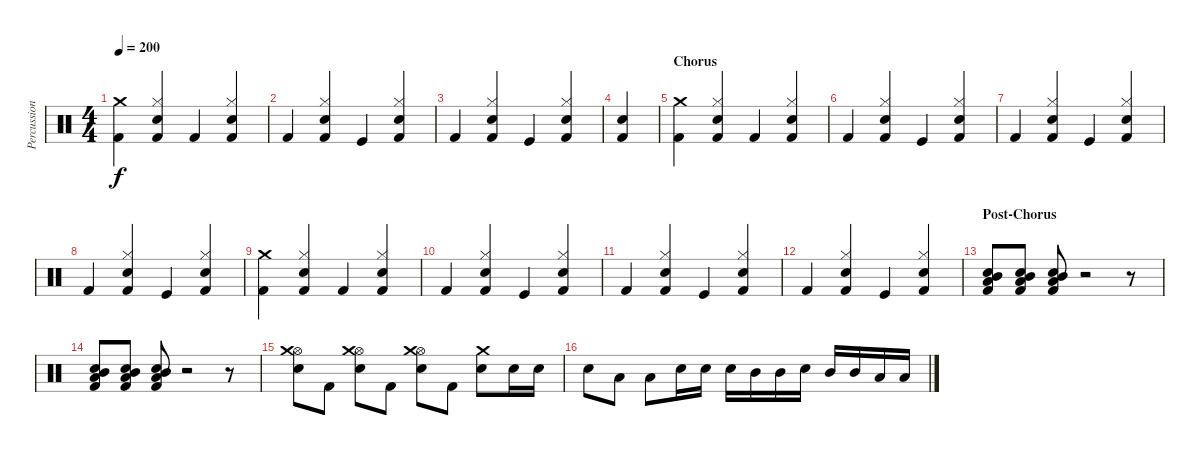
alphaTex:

\track ("Percussion" "Percussion") {instrument percussion}
\staff {score}
\articulation defaults
\ts (4 4)
\tempo 200
\clef neutral
\ks c
("Crash medium (hit)" "Kick (hit) 2").4{dy f} ("Hi-Hat (closed)" "Snare (hit) 2" "Kick (hit) 2").4 "Kick (hit) 2".4 ("Hi-Hat (closed)" "Snare (hit) 2" "Kick (hit) 2").4 |
"Kick (hit) 2".4 ("Hi-Hat (closed)" "Snare (hit) 2" "Kick (hit) 2").4 "Kick (hit)".4 ("Hi-Hat (closed)" "Snare (hit) 2" "Kick (hit) 2").4 |
"Kick (hit) 2".4 ("Hi-Hat (closed)" "Snare (hit) 2" "Kick (hit) 2").4 "Kick (hit)".4 ("Hi-Hat (closed)" "Snare (hit) 2" "Kick (hit) 2").4 |
("Kick (hit) 2" "Snare (hit) 2").4 |
\section ("" "Chorus")
("Crash medium (hit)" "Kick (hit) 2").4 ("Hi-Hat (closed)" "Snare (hit) 2" "Kick (hit) 2").4 "Kick (hit) 2".4 ("Hi-Hat (closed)" "Snare (hit) 2" "Kick (hit) 2").4 |
"Kick (hit) 2".4 ("Hi-Hat (closed)" "Snare (hit) 2" "Kick (hit) 2").4 "Kick (hit)".4 ("Hi-Hat (closed)" "Snare (hit) 2" "Kick (hit) 2").4 |
"Kick (hit) 2".4 ("Hi-Hat (closed)" "Snare (hit) 2" "Kick (hit) 2").4 "Kick (hit)".4 ("Hi-Hat (closed)" "Snare (hit) 2" "Kick (hit) 2").4 |
"Kick (hit) 2".4 ("Hi-Hat (closed)" "Snare (hit) 2" "Kick (hit) 2").4 "Kick (hit)".4 ("Hi-Hat (closed)" "Snare (hit) 2" "Kick (hit) 2").4 |
("Crash medium (hit)" "Kick (hit) 2").4 ("Hi-Hat (closed)" "Snare (hit) 2" "Kick (hit) 2").4 "Kick (hit) 2".4 ("Hi-Hat (closed)" "Snare (hit) 2" "Kick (hit) 2").4 |
"Kick (hit) 2".4 ("Hi-Hat (closed)" "Snare (hit) 2" "Kick (hit) 2").4 "Kick (hit)".4 ("Hi-Hat (closed)" "Snare (hit) 2" "Kick (hit) 2").4 |
"Kick (hit) 2".4 ("Hi-Hat (closed)" "Snare (hit) 2" "Kick (hit) 2").4 "Kick (hit)".4 ("Hi-Hat (closed)" "Snare (hit) 2" "Kick (hit) 2").4 |
"Kick (hit) 2".4 ("Hi-Hat (closed)" "Snare (hit) 2" "Kick (hit) 2").4 "Kick (hit)".4 ("Hi-Hat (closed)" "Snare (hit) 2" "Kick (hit) 2").4 |
\section ("" "Post-Chorus")
("Low Floor Tom (hit)" "Mid Tom (hit)" "Snare (hit) 2" "Kick (hit) 2").8 ("Low Floor Tom (hit)" "Mid Tom (hit)" "Snare (hit) 2" "Kick (hit) 2").8 ("Low Floor Tom (hit)" "Mid Tom (hit)" "Snare (hit) 2" "Kick (hit) 2").8 r.2 r.8 |
("Low Floor Tom (hit)" "Mid Tom (hit)" "Snare (hit) 2" "Kick (hit) 2").8 ("Low Floor Tom (hit)" "Mid Tom (hit)" "Snare (hit) 2" "Kick (hit) 2").8 ("Low Floor Tom (hit)" "Mid Tom (hit)" "Snare (hit) 2" "Kick (hit) 2").8 r.2 r.8 |
("Hi-Hat (open)" "Electric Snare (hit)" "Crash medium (hit)").8 "Kick (hit) 2".8 ("Hi-Hat (open)" "Electric Snare (hit)" "Crash medium (hit)").8 "Kick (hit) 2".8 ("Hi-Hat (open)" "Electric Snare (hit)" "Crash medium (hit)").8 "Kick (hit) 2".8 ("Electric Snare (hit)" "Crash medium (hit)").8 "Electric Snare (hit)".16 "Electric Snare (hit)".16 |
"Electric Snare (hit)".8 "Low Floor Tom (hit)".8 "Low Floor Tom (hit)".8 "Electric Snare (hit)".16 "Electric Snare (hit)".16 "Electric Snare (hit)".16 "Mid Tom (hit)".16 "Mid Tom (hit)".16 "Electric Snare (hit)".16 "Mid Tom (hit)".16 "Mid Tom (hit)".16 "Low Floor Tom (hit)".16 "Low Floor Tom (hit)".16
